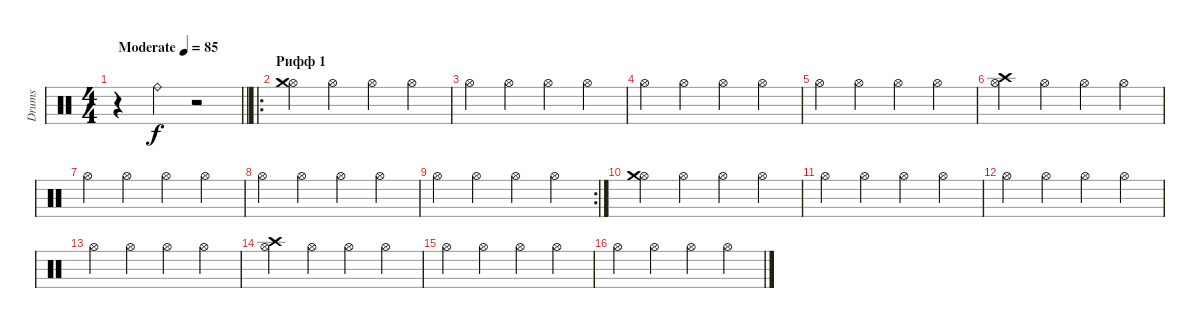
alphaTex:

\track ("Drums" "Drums") {instrument percussion}
\staff {score}
\articulation defaults
\ts (4 4)
\tempo (85 "Moderate")
\clef neutral
\barLineRight lightlight
\ks c
r.4{dy f} "Ride (bell)".4 r.2 |
\ro
\section ("" "Рифф 1")
("Hi-Hat (open)" "Crash medium (hit)").4 "Hi-Hat (open)".4 "Hi-Hat (open)".4 "Hi-Hat (open)".4 |
"Hi-Hat (open)".4 "Hi-Hat (open)".4 "Hi-Hat (open)".4 "Hi-Hat (open)".4 |
"Hi-Hat (open)".4 "Hi-Hat (open)".4 "Hi-Hat (open)".4 "Hi-Hat (open)".4 |
"Hi-Hat (open)".4 "Hi-Hat (open)".4 "Hi-Hat (open)".4 "Hi-Hat (open)".4 |
("Hi-Hat (open)" "Crash high (hit)").4 "Hi-Hat (open)".4 "Hi-Hat (open)".4 "Hi-Hat (open)".4 |
"Hi-Hat (open)".4 "Hi-Hat (open)".4 "Hi-Hat (open)".4 "Hi-Hat (open)".4 |
"Hi-Hat (open)".4 "Hi-Hat (open)".4 "Hi-Hat (open)".4 "Hi-Hat (open)".4 |
\rc 2 "Hi-Hat (open)".4 "Hi-Hat (open)".4 "Hi-Hat (open)".4 "Hi-Hat (open)".4
|
("Hi-Hat (open)" "Crash medium (hit)").4 "Hi-Hat (open)".4 "Hi-Hat (open)".4 "Hi-Hat (open)".4 |
"Hi-Hat (open)".4 "Hi-Hat (open)".4 "Hi-Hat (open)".4 "Hi-Hat (open)".4 |
"Hi-Hat (open)".4 "Hi-Hat (open)".4 "Hi-Hat (open)".4 "Hi-Hat (open)".4 |
"Hi-Hat (open)".4 "Hi-Hat (open)".4 "Hi-Hat (open)".4 "Hi-Hat (open)".4 |
("Hi-Hat (open)" "Crash high (hit)").4 "Hi-Hat (open)".4 "Hi-Hat (open)".4 "Hi-Hat (open)".4 |
"Hi-Hat (open)".4 "Hi-Hat (open)".4 "Hi-Hat (open)".4 "Hi-Hat (open)".4 |
"Hi-Hat (open)".4 "Hi-Hat (open)".4 "Hi-Hat (open)".4 "Hi-Hat (open)".4
